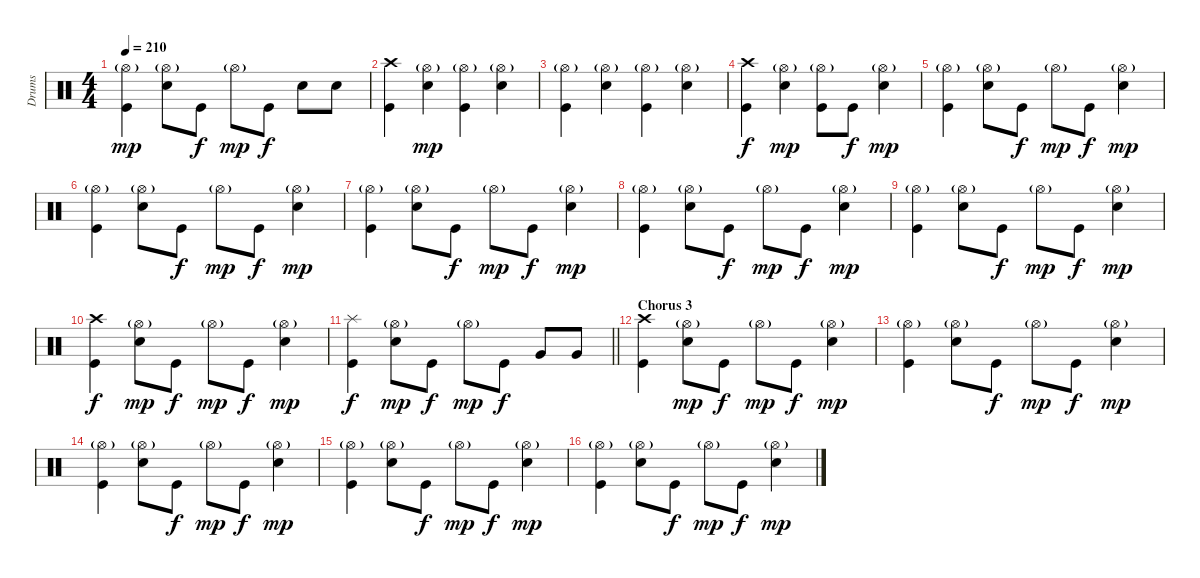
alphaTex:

\track ("Drums" "Drums") {instrument percussion}
\staff {score}
\articulation defaults
\ts (4 4)
\tempo 210
\clef neutral
\ks c
("Hi-Hat (open)"{g} "Kick (hit)").4{dy mp} ("Hi-Hat (open)"{g} "Snare (hit) 2").8 "Kick (hit)".8{dy f} "Hi-Hat (open)"{g}.8{dy mp} "Kick (hit)".8{dy f} "Snare (hit) 2".8 "Snare (hit) 2".8 |
("Crash high (hit)" "Kick (hit)").4 ("Hi-Hat (open)"{g} "Snare (hit) 2").4{dy mp} ("Hi-Hat (open)"{g} "Kick (hit)").4 ("Hi-Hat (open)"{g} "Snare (hit) 2").4 |
("Hi-Hat (open)"{g} "Kick (hit)").4 ("Hi-Hat (open)"{g} "Snare (hit) 2").4 ("Hi-Hat (open)"{g} "Kick (hit)").4 ("Hi-Hat (open)"{g} "Snare (hit) 2").4 |
("Crash high (hit)" "Kick (hit)").4{dy f} ("Hi-Hat (open)"{g} "Snare (hit) 2").4{dy mp} ("Hi-Hat (open)"{g} "Kick (hit)").8 "Kick (hit)".8{dy f} ("Hi-Hat (open)"{g} "Snare (hit) 2").4{dy mp} |
("Hi-Hat (open)"{g} "Kick (hit)").4 ("Hi-Hat (open)"{g} "Snare (hit) 2").8 "Kick (hit)".8{dy f} "Hi-Hat (open)"{g}.8{dy mp} "Kick (hit)".8{dy f} ("Hi-Hat (open)"{g} "Snare (hit) 2").4{dy mp} |
("Hi-Hat (open)"{g} "Kick (hit)").4 ("Hi-Hat (open)"{g} "Snare (hit) 2").8 "Kick (hit)".8{dy f} "Hi-Hat (open)"{g}.8{dy mp} "Kick (hit)".8{dy f} ("Hi-Hat (open)"{g} "Snare (hit) 2").4{dy mp} |
("Hi-Hat (open)"{g} "Kick (hit)").4 ("Hi-Hat (open)"{g} "Snare (hit) 2").8 "Kick (hit)".8{dy f} "Hi-Hat (open)"{g}.8{dy mp} "Kick (hit)".8{dy f} ("Hi-Hat (open)"{g} "Snare (hit) 2").4{dy mp} |
("Hi-Hat (open)"{g} "Kick (hit)").4 ("Hi-Hat (open)"{g} "Snare (hit) 2").8 "Kick (hit)".8{dy f} "Hi-Hat (open)"{g}.8{dy mp} "Kick (hit)".8{dy f} ("Hi-Hat (open)"{g} "Snare (hit) 2").4{dy mp} |
("Hi-Hat (open)"{g} "Kick (hit)").4 ("Hi-Hat (open)"{g} "Snare (hit) 2").8 "Kick (hit)".8{dy f} "Hi-Hat (open)"{g}.8{dy mp} "Kick (hit)".8{dy f} ("Hi-Hat (open)"{g} "Snare (hit) 2").4{dy mp} |
("Crash high (hit)" "Kick (hit)").4{dy f} ("Hi-Hat (open)"{g} "Snare (hit) 2").8{dy mp} "Kick (hit)".8{dy f} "Hi-Hat (open)"{g}.8{dy mp} "Kick (hit)".8{dy f} ("Hi-Hat (open)"{g} "Snare (hit) 2").4{dy mp} |
\barLineRight lightlight
("Splash (hit)" "Kick (hit)").4{dy f} ("Hi-Hat (open)"{g} "Snare (hit) 2").8{dy mp} "Kick (hit)".8{dy f} "Hi-Hat (open)"{g}.8{dy mp} "Kick (hit)".8{dy f} "Very Low Tom (hit)".8 "Very Low Tom (hit)".8 |
\section ("" "Chorus 3")
("Crash high (hit)" "Kick (hit)").4 ("Hi-Hat (open)"{g} "Snare (hit) 2").8{dy mp} "Kick (hit)".8{dy f} "Hi-Hat (open)"{g}.8{dy mp} "Kick (hit)".8{dy f} ("Hi-Hat (open)"{g} "Snare (hit) 2").4{dy mp} |
("Hi-Hat (open)"{g} "Kick (hit)").4 ("Hi-Hat (open)"{g} "Snare (hit) 2").8 "Kick (hit)".8{dy f} "Hi-Hat (open)"{g}.8{dy mp} "Kick (hit)".8{dy f} ("Hi-Hat (open)"{g} "Snare (hit) 2").4{dy mp} |
("Hi-Hat (open)"{g} "Kick (hit)").4 ("Hi-Hat (open)"{g} "Snare (hit) 2").8 "Kick (hit)".8{dy f} "Hi-Hat (open)"{g}.8{dy mp} "Kick (hit)".8{dy f} ("Hi-Hat (open)"{g} "Snare (hit) 2").4{dy mp} |
("Hi-Hat (open)"{g} "Kick (hit)").4 ("Hi-Hat (open)"{g} "Snare (hit) 2").8 "Kick (hit)".8{dy f} "Hi-Hat (open)"{g}.8{dy mp} "Kick (hit)".8{dy f} ("Hi-Hat (open)"{g} "Snare (hit) 2").4{dy mp} |
("Hi-Hat (open)"{g} "Kick (hit)").4 ("Hi-Hat (open)"{g} "Snare (hit) 2").8 "Kick (hit)".8{dy f} "Hi-Hat (open)"{g}.8{dy mp} "Kick (hit)".8{dy f} ("Hi-Hat (open)"{g} "Snare (hit) 2").4{dy mp}
